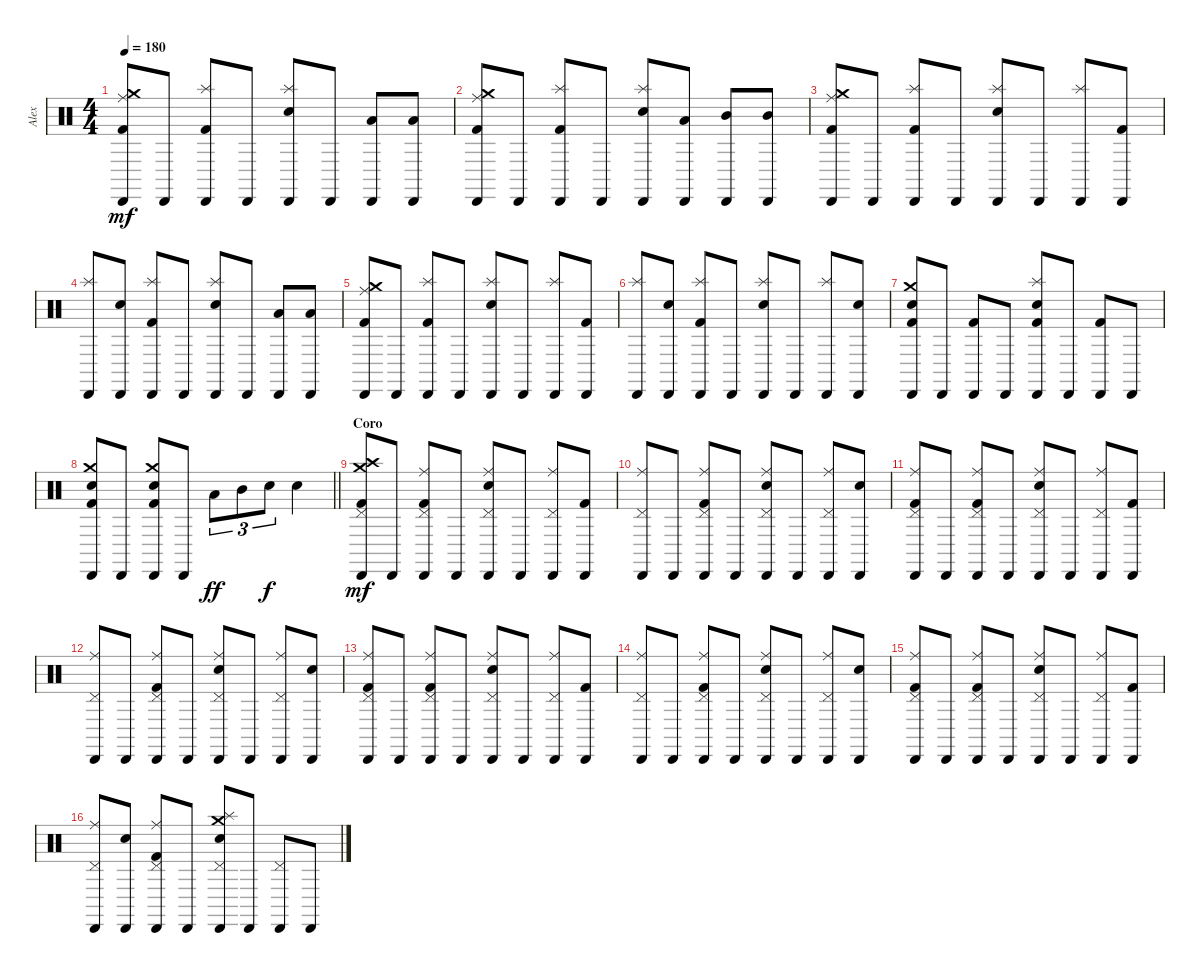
\track ("Alex" "Alex") {instrument percussion}
\staff {score}
\articulation defaults
\ts (4 4)
\tempo 180
\clef neutral
\ks c
("Ride (middle)" "Crash medium (hit)" "Kick (hit) 2" "Cabasa (hit)").8{dy mf} "Cabasa (hit)".8 ("Splash (hit)" "Kick (hit) 2" "Cabasa (hit)").8 "Cabasa (hit)".8 ("Splash (hit)" "Snare (hit) 2" "Cabasa (hit)").8 "Cabasa (hit)".8 ("Low Tom (hit)" "Cabasa (hit)").8 ("Low Tom (hit)" "Cabasa (hit)").8 |
("Ride (middle)" "Crash medium (hit)" "Kick (hit) 2" "Cabasa (hit)").8 "Cabasa (hit)".8 ("Splash (hit)" "Kick (hit) 2" "Cabasa (hit)").8 "Cabasa (hit)".8 ("Splash (hit)" "Snare (hit) 2" "Cabasa (hit)").8 ("Low Tom (hit)" "Cabasa (hit)").8 ("Mid Tom (hit)" "Cabasa (hit)").8 ("Mid Tom (hit)" "Cabasa (hit)").8 |
("Ride (middle)" "Crash medium (hit)" "Kick (hit) 2" "Cabasa (hit)").8 "Cabasa (hit)".8 ("Splash (hit)" "Kick (hit) 2" "Cabasa (hit)").8 "Cabasa (hit)".8 ("Splash (hit)" "Snare (hit) 2" "Cabasa (hit)").8 "Cabasa (hit)".8 ("Splash (hit)" "Cabasa (hit)").8 ("Kick (hit) 2" "Cabasa (hit)").8 |
("Splash (hit)" "Cabasa (hit)").8 ("Snare (hit) 2" "Cabasa (hit)").8 ("Splash (hit)" "Kick (hit) 2" "Cabasa (hit)").8 "Cabasa (hit)".8 ("Splash (hit)" "Snare (hit) 2" "Cabasa (hit)").8 "Cabasa (hit)".8 ("Low Tom (hit)" "Cabasa (hit)").8 ("Low Tom (hit)" "Cabasa (hit)").8 |
("Ride (middle)" "Crash medium (hit)" "Kick (hit) 2" "Cabasa (hit)").8 "Cabasa (hit)".8 ("Splash (hit)" "Kick (hit) 2" "Cabasa (hit)").8 "Cabasa (hit)".8 ("Splash (hit)" "Snare (hit) 2" "Cabasa (hit)").8 "Cabasa (hit)".8 ("Splash (hit)" "Cabasa (hit)").8 ("Kick (hit) 2" "Cabasa (hit)").8 |
("Splash (hit)" "Cabasa (hit)").8 ("Snare (hit) 2" "Cabasa (hit)").8 ("Splash (hit)" "Kick (hit) 2" "Cabasa (hit)").8 "Cabasa (hit)".8 ("Splash (hit)" "Snare (hit) 2" "Cabasa (hit)").8 "Cabasa (hit)".8 ("Splash (hit)" "Cabasa (hit)").8 ("Snare (hit) 2" "Cabasa (hit)").8 |
("Crash medium (hit)" "Kick (hit) 2" "Snare (hit) 2" "Cabasa (hit)").8 "Cabasa (hit)".8 ("Kick (hit) 2" "Cabasa (hit)").8 "Cabasa (hit)".8 ("Splash (hit)" "Kick (hit) 2" "Snare (hit) 2" "Cabasa (hit)").8 "Cabasa (hit)".8 ("Kick (hit) 2" "Cabasa (hit)").8 "Cabasa (hit)".8 |
\barLineRight lightlight
("Crash medium (hit)" "Kick (hit) 2" "Snare (hit) 2" "Cabasa (hit)").8 "Cabasa (hit)".8 ("Crash medium (hit)" "Kick (hit) 2" "Snare (hit) 2" "Cabasa (hit)").8 "Cabasa (hit)".8 "Low Tom (hit)".8{tu (3 2) dy ff} "Mid Tom (hit)".8{tu (3 2)} "Snare (hit) 2".8{tu (3 2) dy f} "Snare (hit) 2".4 |
\section ("" "Coro")
("Crash medium (hit)" "Pedal Hi-Hat (hit)" "Crash high (hit)" "Kick (hit) 2" "Cabasa (hit)").8{dy mf} "Cabasa (hit)".8 ("Ride (middle)" "Pedal Hi-Hat (hit)" "Kick (hit) 2" "Cabasa (hit)").8 "Cabasa (hit)".8 ("Ride (middle)" "Pedal Hi-Hat (hit)" "Snare (hit) 2" "Cabasa (hit)").8 "Cabasa (hit)".8 ("Ride (middle)" "Pedal Hi-Hat (hit)" "Cabasa (hit)").8 ("Kick (hit) 2" "Cabasa (hit)").8 |
("Ride (middle)" "Pedal Hi-Hat (hit)" "Cabasa (hit)").8 "Cabasa (hit)".8 ("Ride (middle)" "Pedal Hi-Hat (hit)" "Kick (hit) 2" "Cabasa (hit)").8 "Cabasa (hit)".8 ("Ride (middle)" "Pedal Hi-Hat (hit)" "Snare (hit) 2" "Cabasa (hit)").8 "Cabasa (hit)".8 ("Ride (middle)" "Pedal Hi-Hat (hit)" "Cabasa (hit)").8 ("Snare (hit) 2" "Cabasa (hit)").8 |
("Ride (middle)" "Pedal Hi-Hat (hit)" "Kick (hit) 2" "Cabasa (hit)").8 "Cabasa (hit)".8 ("Ride (middle)" "Pedal Hi-Hat (hit)" "Kick (hit) 2" "Cabasa (hit)").8 "Cabasa (hit)".8 ("Ride (middle)" "Pedal Hi-Hat (hit)" "Snare (hit) 2" "Cabasa (hit)").8 "Cabasa (hit)".8 ("Ride (middle)" "Pedal Hi-Hat (hit)" "Cabasa (hit)").8 ("Kick (hit) 2" "Cabasa (hit)").8 |
("Ride (middle)" "Pedal Hi-Hat (hit)" "Cabasa (hit)").8 "Cabasa (hit)".8 ("Ride (middle)" "Pedal Hi-Hat (hit)" "Kick (hit) 2" "Cabasa (hit)").8 "Cabasa (hit)".8 ("Ride (middle)" "Pedal Hi-Hat (hit)" "Snare (hit) 2" "Cabasa (hit)").8 "Cabasa (hit)".8 ("Ride (middle)" "Pedal Hi-Hat (hit)" "Cabasa (hit)").8 ("Snare (hit) 2" "Cabasa (hit)").8 |
("Ride (middle)" "Pedal Hi-Hat (hit)" "Kick (hit) 2" "Cabasa (hit)").8 "Cabasa (hit)".8 ("Ride (middle)" "Pedal Hi-Hat (hit)" "Kick (hit) 2" "Cabasa (hit)").8 "Cabasa (hit)".8 ("Ride (middle)" "Pedal Hi-Hat (hit)" "Snare (hit) 2" "Cabasa (hit)").8 "Cabasa (hit)".8 ("Ride (middle)" "Pedal Hi-Hat (hit)" "Cabasa (hit)").8 ("Kick (hit) 2" "Cabasa (hit)").8 |
("Ride (middle)" "Pedal Hi-Hat (hit)" "Cabasa (hit)").8 "Cabasa (hit)".8 ("Ride (middle)" "Pedal Hi-Hat (hit)" "Kick (hit) 2" "Cabasa (hit)").8 "Cabasa (hit)".8 ("Ride (middle)" "Pedal Hi-Hat (hit)" "Snare (hit) 2" "Cabasa (hit)").8 "Cabasa (hit)".8 ("Ride (middle)" "Pedal Hi-Hat (hit)" "Cabasa (hit)").8 ("Snare (hit) 2" "Cabasa (hit)").8 |
("Ride (middle)" "Pedal Hi-Hat (hit)" "Kick (hit) 2" "Cabasa (hit)").8 "Cabasa (hit)".8 ("Ride (middle)" "Pedal Hi-Hat (hit)" "Kick (hit) 2" "Cabasa (hit)").8 "Cabasa (hit)".8 ("Ride (middle)" "Pedal Hi-Hat (hit)" "Snare (hit) 2" "Cabasa (hit)").8 "Cabasa (hit)".8 ("Ride (middle)" "Pedal Hi-Hat (hit)" "Cabasa (hit)").8 ("Kick (hit) 2" "Cabasa (hit)").8 |
("Ride (middle)" "Pedal Hi-Hat (hit)" "Cabasa (hit)").8 ("Snare (hit) 2" "Cabasa (hit)").8 ("Ride (middle)" "Pedal Hi-Hat (hit)" "Kick (hit) 2" "Cabasa (hit)").8 "Cabasa (hit)".8 ("Crash medium (hit)" "Pedal Hi-Hat (hit)" "Splash (hit)" "Snare (hit) 2" "Cabasa (hit)").8 "Cabasa (hit)".8 ("Pedal Hi-Hat (hit)" "Cabasa (hit)").8 "Cabasa (hit)".8
